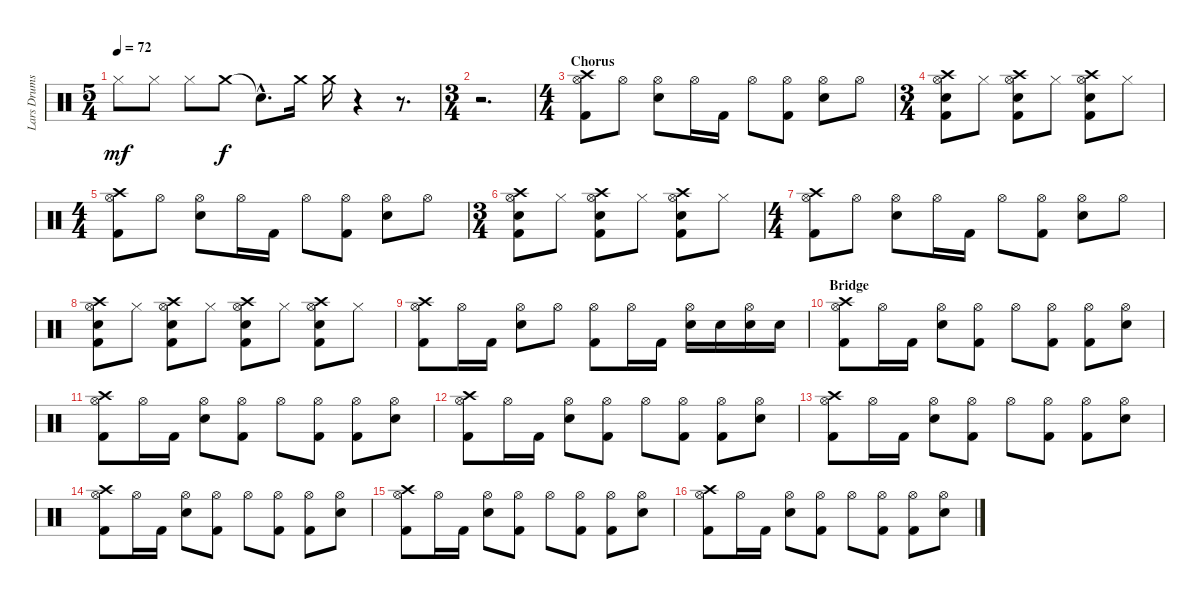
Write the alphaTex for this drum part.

\track ("Lars Drums" "Lars Drums") {instrument percussion}
\staff {score}
\articulation defaults
\ts (5 4)
\tempo 72
\clef neutral
\ks c "Hi-Hat (closed)".8{dy mf} "Hi-Hat (closed)".8 "Hi-Hat (closed)".8 "Crash medium (hit)".8{dy f} "Snare (hit)"{hac t}.8{d} "Crash medium (hit)".16 "Crash medium (hit)".16
r.4 r.8{d} |
\ts (3 4)
r.2{d} |
\ts (4 4)
\section ("" "Chorus")
("Kick (hit) 2" "Hi-Hat (open)" "Crash high (hit)").8 "Hi-Hat (open)".8 ("Snare (hit) 2" "Hi-Hat (open)").8 "Hi-Hat (open)".16 "Kick (hit) 2".16 "Hi-Hat (open)".8 ("Kick (hit) 2" "Hi-Hat (open)").8 ("Snare (hit) 2" "Hi-Hat (open)").8 "Hi-Hat (open)".8 |
\ts (3 4)
("Kick (hit) 2" "Snare (hit) 2" "Hi-Hat (open)" "Crash high (hit)").8 "Hi-Hat (closed)".8 ("Kick (hit) 2" "Snare (hit) 2" "Hi-Hat (open)" "Crash high (hit)").8 "Hi-Hat (closed)".8 ("Kick (hit) 2" "Snare (hit) 2" "Hi-Hat (open)" "Crash high (hit)").8 "Hi-Hat (closed)".8 |
\ts (4 4)
("Kick (hit) 2" "Hi-Hat (open)" "Crash high (hit)").8 "Hi-Hat (open)".8 ("Snare (hit) 2" "Hi-Hat (open)").8 "Hi-Hat (open)".16 "Kick (hit) 2".16 "Hi-Hat (open)".8 ("Kick (hit) 2" "Hi-Hat (open)").8 ("Snare (hit) 2" "Hi-Hat (open)").8 "Hi-Hat (open)".8 |
\ts (3 4)
("Kick (hit) 2" "Snare (hit) 2" "Hi-Hat (open)" "Crash high (hit)").8 "Hi-Hat (closed)".8 ("Kick (hit) 2" "Snare (hit) 2" "Hi-Hat (open)" "Crash high (hit)").8 "Hi-Hat (closed)".8 ("Kick (hit) 2" "Snare (hit) 2" "Hi-Hat (open)" "Crash high (hit)").8 "Hi-Hat (closed)".8 |
\ts (4 4)
("Kick (hit) 2" "Hi-Hat (open)" "Crash high (hit)").8 "Hi-Hat (open)".8 ("Snare (hit) 2" "Hi-Hat (open)").8 "Hi-Hat (open)".16 "Kick (hit) 2".16 "Hi-Hat (open)".8 ("Kick (hit) 2" "Hi-Hat (open)").8 ("Snare (hit) 2" "Hi-Hat (open)").8 "Hi-Hat (open)".8 |
("Kick (hit) 2" "Snare (hit) 2" "Hi-Hat (open)" "Crash high (hit)").8 "Hi-Hat (closed)".8 ("Kick (hit) 2" "Snare (hit) 2" "Hi-Hat (open)" "Crash high (hit)").8 "Hi-Hat (closed)".8 ("Kick (hit) 2" "Snare (hit) 2" "Hi-Hat (open)" "Crash high (hit)").8 "Hi-Hat (closed)".8 ("Kick (hit) 2" "Snare (hit) 2" "Hi-Hat (open)" "Crash high (hit)").8 "Hi-Hat (closed)".8 |
("Kick (hit) 2" "Hi-Hat (open)" "Crash high (hit)").8 "Hi-Hat (open)".16 "Kick (hit) 2".16 ("Snare (hit) 2" "Hi-Hat (open)").8 "Hi-Hat (open)".8 ("Kick (hit) 2" "Hi-Hat (open)").8 "Hi-Hat (open)".16 "Kick (hit) 2".16 ("Snare (hit) 2" "Hi-Hat (open)").16 "Snare (hit) 2".16 ("Snare (hit) 2" "Hi-Hat (open)").16 "Snare (hit) 2".16 |
\section ("" "Bridge")
("Kick (hit) 2" "Hi-Hat (open)" "Crash high (hit)").8 "Hi-Hat (open)".16 "Kick (hit) 2".16 ("Snare (hit) 2" "Hi-Hat (open)").8 ("Kick (hit) 2" "Hi-Hat (open)").8 "Hi-Hat (open)".8 ("Kick (hit) 2" "Hi-Hat (open)").8 ("Kick (hit) 2" "Hi-Hat (open)").8 ("Snare (hit) 2" "Hi-Hat (open)").8 |
("Kick (hit) 2" "Hi-Hat (open)" "Crash high (hit)").8 "Hi-Hat (open)".16 "Kick (hit) 2".16 ("Snare (hit) 2" "Hi-Hat (open)").8 ("Kick (hit) 2" "Hi-Hat (open)").8 "Hi-Hat (open)".8 ("Kick (hit) 2" "Hi-Hat (open)").8 ("Kick (hit) 2" "Hi-Hat (open)").8 ("Snare (hit) 2" "Hi-Hat (open)").8 |
("Kick (hit) 2" "Hi-Hat (open)" "Crash high (hit)").8 "Hi-Hat (open)".16 "Kick (hit) 2".16 ("Snare (hit) 2" "Hi-Hat (open)").8 ("Kick (hit) 2" "Hi-Hat (open)").8 "Hi-Hat (open)".8 ("Kick (hit) 2" "Hi-Hat (open)").8 ("Kick (hit) 2" "Hi-Hat (open)").8 ("Snare (hit) 2" "Hi-Hat (open)").8 |
("Kick (hit) 2" "Hi-Hat (open)" "Crash high (hit)").8 "Hi-Hat (open)".16 "Kick (hit) 2".16 ("Snare (hit) 2" "Hi-Hat (open)").8 ("Kick (hit) 2" "Hi-Hat (open)").8 "Hi-Hat (open)".8 ("Kick (hit) 2" "Hi-Hat (open)").8 ("Kick (hit) 2" "Hi-Hat (open)").8 ("Snare (hit) 2" "Hi-Hat (open)").8 |
("Kick (hit) 2" "Hi-Hat (open)" "Crash high (hit)").8 "Hi-Hat (open)".16 "Kick (hit) 2".16 ("Snare (hit) 2" "Hi-Hat (open)").8 ("Kick (hit) 2" "Hi-Hat (open)").8 "Hi-Hat (open)".8 ("Kick (hit) 2" "Hi-Hat (open)").8 ("Kick (hit) 2" "Hi-Hat (open)").8 ("Snare (hit) 2" "Hi-Hat (open)").8 |
("Kick (hit) 2" "Hi-Hat (open)" "Crash high (hit)").8 "Hi-Hat (open)".16 "Kick (hit) 2".16 ("Snare (hit) 2" "Hi-Hat (open)").8 ("Kick (hit) 2" "Hi-Hat (open)").8 "Hi-Hat (open)".8 ("Kick (hit) 2" "Hi-Hat (open)").8 ("Kick (hit) 2" "Hi-Hat (open)").8 ("Snare (hit) 2" "Hi-Hat (open)").8 |
("Kick (hit) 2" "Hi-Hat (open)" "Crash high (hit)").8 "Hi-Hat (open)".16 "Kick (hit) 2".16 ("Snare (hit) 2" "Hi-Hat (open)").8 ("Kick (hit) 2" "Hi-Hat (open)").8 "Hi-Hat (open)".8 ("Kick (hit) 2" "Hi-Hat (open)").8 ("Kick (hit) 2" "Hi-Hat (open)").8 ("Snare (hit) 2" "Hi-Hat (open)").8
